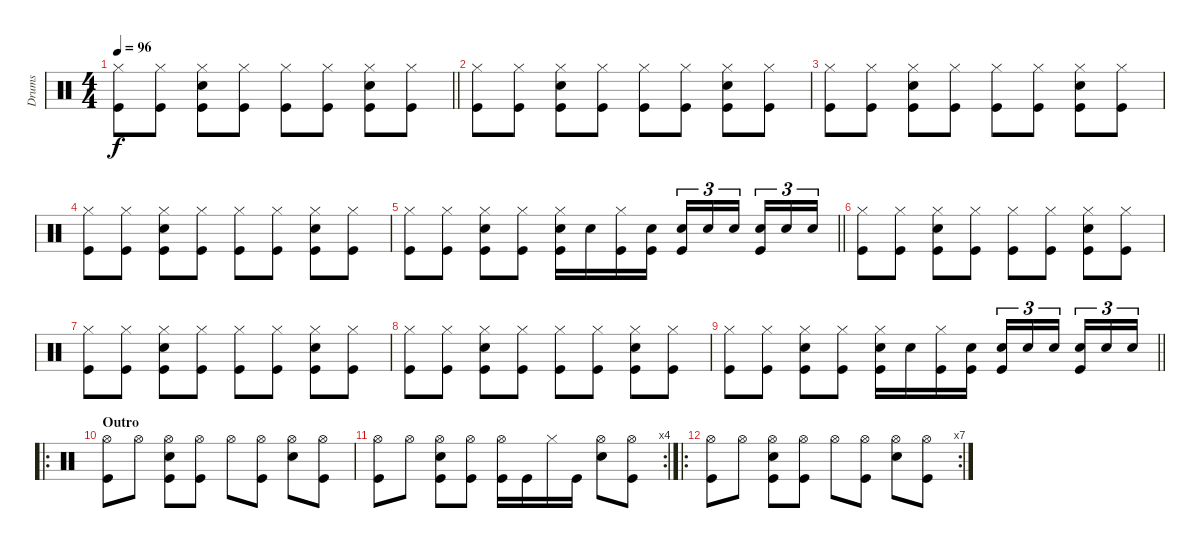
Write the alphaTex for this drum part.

\track ("Drums" "Drums") {instrument percussion}
\staff {score}
\articulation defaults
\ts (4 4)
\tempo 96
\clef neutral
\barLineRight lightlight
\ks c
("Hi-Hat (closed)" "Kick (hit)").8{dy f} ("Hi-Hat (closed)" "Kick (hit)").8 ("Snare (hit) 2" "Hi-Hat (closed)" "Kick (hit)").8 ("Hi-Hat (closed)" "Kick (hit)").8 ("Hi-Hat (closed)" "Kick (hit)").8 ("Hi-Hat (closed)" "Kick (hit)").8 ("Snare (hit) 2" "Hi-Hat (closed)" "Kick (hit)").8 ("Hi-Hat (closed)" "Kick (hit)").8 |
\section ("" " ")
("Hi-Hat (closed)" "Kick (hit)").8 ("Hi-Hat (closed)" "Kick (hit)").8 ("Snare (hit) 2" "Hi-Hat (closed)" "Kick (hit)").8 ("Hi-Hat (closed)" "Kick (hit)").8 ("Hi-Hat (closed)" "Kick (hit)").8 ("Hi-Hat (closed)" "Kick (hit)").8 ("Snare (hit) 2" "Hi-Hat (closed)" "Kick (hit)").8 ("Hi-Hat (closed)" "Kick (hit)").8 |
("Hi-Hat (closed)" "Kick (hit)").8 ("Hi-Hat (closed)" "Kick (hit)").8 ("Snare (hit) 2" "Hi-Hat (closed)" "Kick (hit)").8 ("Hi-Hat (closed)" "Kick (hit)").8 ("Hi-Hat (closed)" "Kick (hit)").8 ("Hi-Hat (closed)" "Kick (hit)").8 ("Snare (hit) 2" "Hi-Hat (closed)" "Kick (hit)").8 ("Hi-Hat (closed)" "Kick (hit)").8 |
("Hi-Hat (closed)" "Kick (hit)").8 ("Hi-Hat (closed)" "Kick (hit)").8 ("Snare (hit) 2" "Hi-Hat (closed)" "Kick (hit)").8 ("Hi-Hat (closed)" "Kick (hit)").8 ("Hi-Hat (closed)" "Kick (hit)").8 ("Hi-Hat (closed)" "Kick (hit)").8 ("Snare (hit) 2" "Hi-Hat (closed)" "Kick (hit)").8 ("Hi-Hat (closed)" "Kick (hit)").8 |
\barLineRight lightlight
("Hi-Hat (closed)" "Kick (hit)").8 ("Hi-Hat (closed)" "Kick (hit)").8 ("Snare (hit) 2" "Hi-Hat (closed)" "Kick (hit)").8 ("Hi-Hat (closed)" "Kick (hit)").8 ("Snare (hit) 2" "Hi-Hat (closed)" "Kick (hit)").16 "Snare (hit) 2".16 ("Hi-Hat (closed)" "Kick (hit)").16 ("Snare (hit) 2" "Kick (hit)").16 ("Snare (hit) 2" "Kick (hit)").16{tu (3 2)} "Snare (hit) 2".16{tu (3 2)} "Snare (hit) 2".16{tu (3 2) beam splitsecondary} ("Snare (hit) 2" "Kick (hit)").16{tu (3 2)} "Snare (hit) 2".16{tu (3 2)} "Snare (hit) 2".16{tu (3 2)} |
("Hi-Hat (closed)" "Kick (hit)").8 ("Hi-Hat (closed)" "Kick (hit)").8 ("Snare (hit) 2" "Hi-Hat (closed)" "Kick (hit)").8 ("Hi-Hat (closed)" "Kick (hit)").8 ("Hi-Hat (closed)" "Kick (hit)").8 ("Hi-Hat (closed)" "Kick (hit)").8 ("Snare (hit) 2" "Hi-Hat (closed)" "Kick (hit)").8 ("Hi-Hat (closed)" "Kick (hit)").8 |
("Hi-Hat (closed)" "Kick (hit)").8 ("Hi-Hat (closed)" "Kick (hit)").8 ("Snare (hit) 2" "Hi-Hat (closed)" "Kick (hit)").8 ("Hi-Hat (closed)" "Kick (hit)").8 ("Hi-Hat (closed)" "Kick (hit)").8 ("Hi-Hat (closed)" "Kick (hit)").8 ("Snare (hit) 2" "Hi-Hat (closed)" "Kick (hit)").8 ("Hi-Hat (closed)" "Kick (hit)").8 |
("Hi-Hat (closed)" "Kick (hit)").8 ("Hi-Hat (closed)" "Kick (hit)").8 ("Snare (hit) 2" "Hi-Hat (closed)" "Kick (hit)").8 ("Hi-Hat (closed)" "Kick (hit)").8 ("Hi-Hat (closed)" "Kick (hit)").8 ("Hi-Hat (closed)" "Kick (hit)").8 ("Snare (hit) 2" "Hi-Hat (closed)" "Kick (hit)").8 ("Hi-Hat (closed)" "Kick (hit)").8 |
\barLineRight lightlight
("Hi-Hat (closed)" "Kick (hit)").8 ("Hi-Hat (closed)" "Kick (hit)").8 ("Snare (hit) 2" "Hi-Hat (closed)" "Kick (hit)").8 ("Hi-Hat (closed)" "Kick (hit)").8 ("Snare (hit) 2" "Hi-Hat (closed)" "Kick (hit)").16 "Snare (hit) 2".16 ("Hi-Hat (closed)" "Kick (hit)").16 ("Snare (hit) 2" "Kick (hit)").16 ("Snare (hit) 2" "Kick (hit)").16{tu (3 2)} "Snare (hit) 2".16{tu (3 2)} "Snare (hit) 2".16{tu (3 2) beam splitsecondary} ("Snare (hit) 2" "Kick (hit)").16{tu (3 2)} "Snare (hit) 2".16{tu (3 2)} "Snare (hit) 2".16{tu (3 2)} |
\ro
\section ("" "Outro")
("Hi-Hat (open)" "Kick (hit)").8 "Hi-Hat (open)".8 ("Snare (hit) 2" "Hi-Hat (open)" "Kick (hit)").8 ("Hi-Hat (open)" "Kick (hit)").8 "Hi-Hat (open)".8 ("Hi-Hat (open)" "Kick (hit)").8 ("Snare (hit) 2" "Hi-Hat (open)").8 ("Hi-Hat (open)" "Kick (hit)").8 |
\rc 4
("Hi-Hat (open)" "Kick (hit)").8 "Hi-Hat (open)".8 ("Snare (hit) 2" "Hi-Hat (open)" "Kick (hit)").8 ("Hi-Hat (open)" "Kick (hit)").8 ("Hi-Hat (open)" "Kick (hit)").16 "Kick (hit)".16 "Hi-Hat (closed)".16 "Kick (hit)".16 ("Snare (hit) 2" "Hi-Hat (open)").8 ("Hi-Hat (open)" "Kick (hit)").8 |
\ro
\rc 7
("Hi-Hat (open)" "Kick (hit)").8 "Hi-Hat (open)".8 ("Snare (hit) 2" "Hi-Hat (open)" "Kick (hit)").8 ("Hi-Hat (open)" "Kick (hit)").8 "Hi-Hat (open)".8 ("Hi-Hat (open)" "Kick (hit)").8 ("Snare (hit) 2" "Hi-Hat (open)").8 ("Hi-Hat (open)" "Kick (hit)").8
